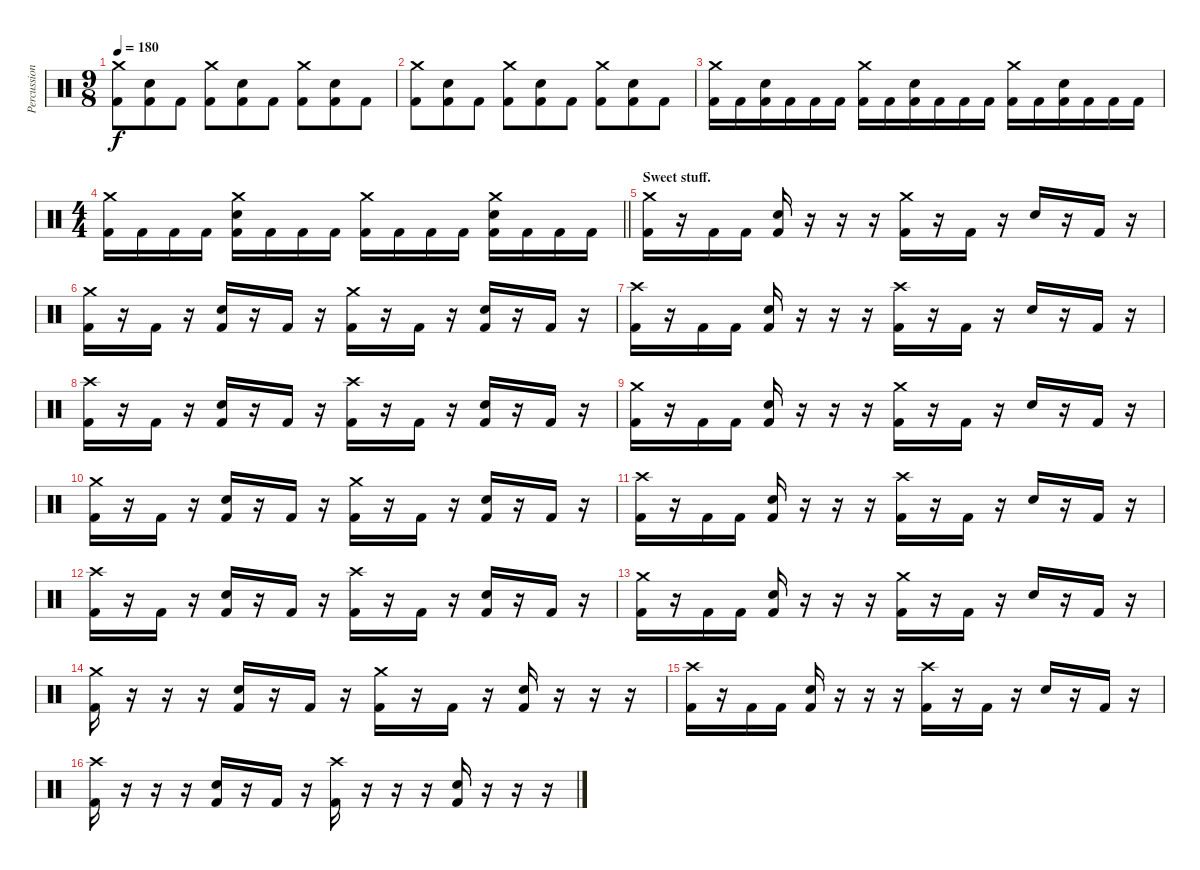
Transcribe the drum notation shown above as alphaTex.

\track ("Percussion" "Percussion") {instrument percussion}
\staff {score}
\articulation defaults
\ts (9 8)
\tempo 180
\clef neutral
\ks c
("Crash medium (hit)" "Kick (hit) 2").8{dy f} ("Electric Snare (hit)" "Kick (hit) 2").8 "Kick (hit) 2".8 ("Crash medium (hit)" "Kick (hit) 2").8 ("Electric Snare (hit)" "Kick (hit) 2").8 "Kick (hit) 2".8 ("Crash medium (hit)" "Kick (hit) 2").8 ("Electric Snare (hit)" "Kick (hit) 2").8 "Kick (hit) 2".8 |
("Crash medium (hit)" "Kick (hit) 2").8 ("Electric Snare (hit)" "Kick (hit) 2").8 "Kick (hit) 2".8 ("Crash medium (hit)" "Kick (hit) 2").8 ("Electric Snare (hit)" "Kick (hit) 2").8 "Kick (hit) 2".8 ("Crash medium (hit)" "Kick (hit) 2").8 ("Electric Snare (hit)" "Kick (hit) 2").8 "Kick (hit) 2".8 |
("Crash medium (hit)" "Kick (hit) 2").16 "Kick (hit) 2".16 ("Electric Snare (hit)" "Kick (hit) 2").16 "Kick (hit) 2".16 "Kick (hit) 2".16 "Kick (hit) 2".16 ("Crash medium (hit)" "Kick (hit) 2").16 "Kick (hit) 2".16 ("Electric Snare (hit)" "Kick (hit) 2").16 "Kick (hit) 2".16 "Kick (hit) 2".16 "Kick (hit) 2".16 ("Crash medium (hit)" "Kick (hit) 2").16 "Kick (hit) 2".16 ("Electric Snare (hit)" "Kick (hit) 2").16 "Kick (hit) 2".16 "Kick (hit) 2".16 "Kick (hit) 2".16 |
\ts (4 4)
\barLineRight lightlight
("Crash medium (hit)" "Kick (hit) 2").16 "Kick (hit) 2".16 "Kick (hit) 2".16 "Kick (hit) 2".16 ("Crash medium (hit)" "Electric Snare (hit)" "Kick (hit) 2").16 "Kick (hit) 2".16 "Kick (hit) 2".16 "Kick (hit) 2".16 ("Crash medium (hit)" "Kick (hit) 2").16 "Kick (hit) 2".16 "Kick (hit) 2".16 "Kick (hit) 2".16 ("Crash medium (hit)" "Electric Snare (hit)" "Kick (hit) 2").16 "Kick (hit) 2".16 "Kick (hit) 2".16 "Kick (hit) 2".16 |
\section ("" "Sweet stuff.")
("Crash medium (hit)" "Kick (hit) 2").16 r.16 "Kick (hit) 2".16 "Kick (hit) 2".16 ("Electric Snare (hit)" "Kick (hit) 2").16 r.16 r.16 r.16 ("Crash medium (hit)" "Kick (hit) 2").16 r.16 "Kick (hit) 2".16 r.16 "Electric Snare (hit)".16 r.16 "Kick (hit) 2".16 r.16 |
("Crash medium (hit)" "Kick (hit) 2").16 r.16 "Kick (hit) 2".16 r.16 ("Electric Snare (hit)" "Kick (hit) 2").16 r.16 "Kick (hit) 2".16 r.16 ("Crash medium (hit)" "Kick (hit) 2").16 r.16 "Kick (hit) 2".16 r.16 ("Electric Snare (hit)" "Kick (hit) 2").16 r.16 "Kick (hit) 2".16 r.16 |
("Crash high (hit)" "Kick (hit) 2").16 r.16 "Kick (hit) 2".16 "Kick (hit) 2".16 ("Electric Snare (hit)" "Kick (hit) 2").16 r.16 r.16 r.16 ("Crash high (hit)" "Kick (hit) 2").16 r.16 "Kick (hit) 2".16 r.16 "Electric Snare (hit)".16 r.16 "Kick (hit) 2".16 r.16 |
("Crash high (hit)" "Kick (hit) 2").16 r.16 "Kick (hit) 2".16 r.16 ("Electric Snare (hit)" "Kick (hit) 2").16 r.16 "Kick (hit) 2".16 r.16 ("Crash high (hit)" "Kick (hit) 2").16 r.16 "Kick (hit) 2".16 r.16 ("Electric Snare (hit)" "Kick (hit) 2").16 r.16 "Kick (hit) 2".16 r.16 |
("Crash medium (hit)" "Kick (hit) 2").16 r.16 "Kick (hit) 2".16 "Kick (hit) 2".16 ("Electric Snare (hit)" "Kick (hit) 2").16 r.16 r.16 r.16 ("Crash medium (hit)" "Kick (hit) 2").16 r.16 "Kick (hit) 2".16 r.16 "Electric Snare (hit)".16 r.16 "Kick (hit) 2".16 r.16 |
("Crash medium (hit)" "Kick (hit) 2").16 r.16 "Kick (hit) 2".16 r.16 ("Electric Snare (hit)" "Kick (hit) 2").16 r.16 "Kick (hit) 2".16 r.16 ("Crash medium (hit)" "Kick (hit) 2").16 r.16 "Kick (hit) 2".16 r.16 ("Electric Snare (hit)" "Kick (hit) 2").16 r.16 "Kick (hit) 2".16 r.16 |
("Crash high (hit)" "Kick (hit) 2").16 r.16 "Kick (hit) 2".16 "Kick (hit) 2".16 ("Electric Snare (hit)" "Kick (hit) 2").16 r.16 r.16 r.16 ("Crash high (hit)" "Kick (hit) 2").16 r.16 "Kick (hit) 2".16 r.16 "Electric Snare (hit)".16 r.16 "Kick (hit) 2".16 r.16 |
("Crash high (hit)" "Kick (hit) 2").16 r.16 "Kick (hit) 2".16 r.16 ("Electric Snare (hit)" "Kick (hit) 2").16 r.16 "Kick (hit) 2".16 r.16 ("Crash high (hit)" "Kick (hit) 2").16 r.16 "Kick (hit) 2".16 r.16 ("Electric Snare (hit)" "Kick (hit) 2").16 r.16 "Kick (hit) 2".16 r.16 |
("Crash medium (hit)" "Kick (hit) 2").16 r.16 "Kick (hit) 2".16 "Kick (hit) 2".16 ("Electric Snare (hit)" "Kick (hit) 2").16 r.16 r.16 r.16 ("Crash medium (hit)" "Kick (hit) 2").16 r.16 "Kick (hit) 2".16 r.16 "Electric Snare (hit)".16 r.16 "Kick (hit) 2".16 r.16 |
("Crash medium (hit)" "Kick (hit) 2").16 r.16 r.16 r.16 ("Electric Snare (hit)" "Kick (hit) 2").16 r.16 "Kick (hit) 2".16 r.16 ("Crash medium (hit)" "Kick (hit) 2").16 r.16 "Kick (hit) 2".16 r.16 ("Electric Snare (hit)" "Kick (hit) 2").16 r.16 r.16 r.16 |
("Crash high (hit)" "Kick (hit) 2").16 r.16 "Kick (hit) 2".16 "Kick (hit) 2".16 ("Electric Snare (hit)" "Kick (hit) 2").16 r.16 r.16 r.16 ("Crash high (hit)" "Kick (hit) 2").16 r.16 "Kick (hit) 2".16 r.16 "Electric Snare (hit)".16 r.16 "Kick (hit) 2".16 r.16 |
("Crash high (hit)" "Kick (hit) 2").16 r.16 r.16 r.16 ("Electric Snare (hit)" "Kick (hit) 2").16 r.16 "Kick (hit) 2".16 r.16 ("Crash high (hit)" "Kick (hit) 2").16 r.16 r.16 r.16 ("Electric Snare (hit)" "Kick (hit) 2").16 r.16 r.16 r.16
